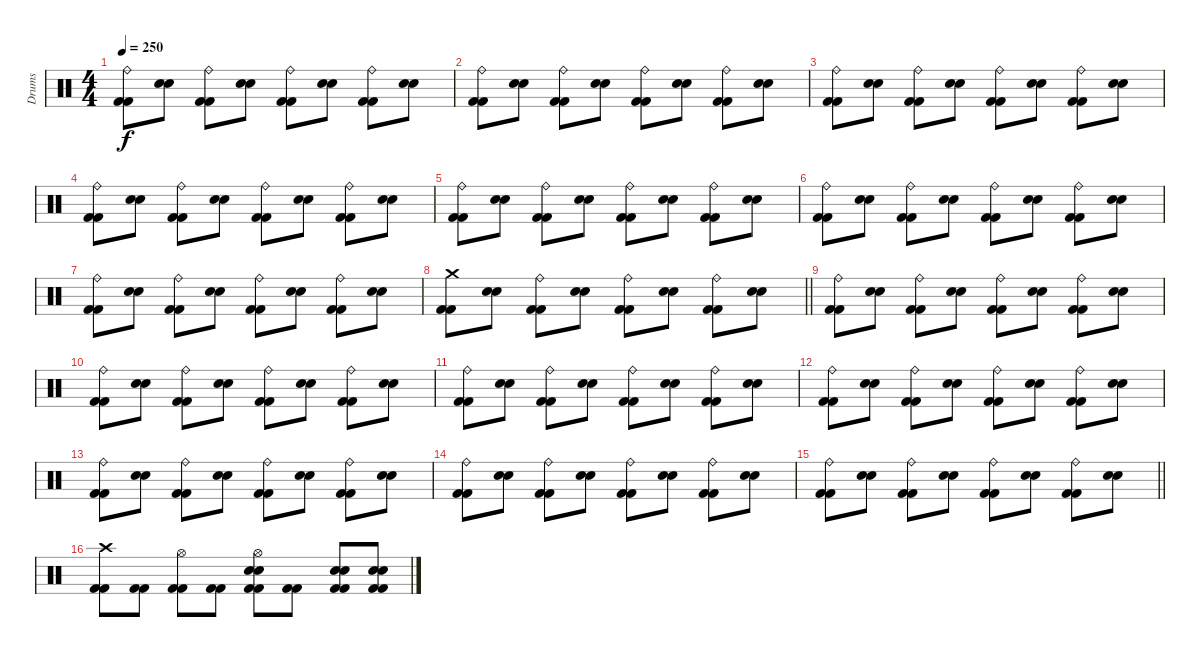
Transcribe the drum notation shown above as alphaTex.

\track ("Drums" "Drums") {instrument percussion}
\staff {score}
\articulation defaults
\ts (4 4)
\tempo 250
\clef neutral
\ks c
("Kick (hit) 2" "Kick (hit) 2" "Ride (bell)").8{dy f} ("Electric Snare (hit)" "Electric Snare (hit)").8 ("Kick (hit) 2" "Kick (hit) 2" "Ride (bell)").8 ("Electric Snare (hit)" "Electric Snare (hit)").8 ("Kick (hit) 2" "Kick (hit) 2" "Ride (bell)").8 ("Electric Snare (hit)" "Electric Snare (hit)").8 ("Kick (hit) 2" "Kick (hit) 2" "Ride (bell)").8 ("Electric Snare (hit)" "Electric Snare (hit)").8 |
("Kick (hit) 2" "Kick (hit) 2" "Ride (bell)").8 ("Electric Snare (hit)" "Electric Snare (hit)").8 ("Kick (hit) 2" "Kick (hit) 2" "Ride (bell)").8 ("Electric Snare (hit)" "Electric Snare (hit)").8 ("Kick (hit) 2" "Kick (hit) 2" "Ride (bell)").8 ("Electric Snare (hit)" "Electric Snare (hit)").8 ("Kick (hit) 2" "Kick (hit) 2" "Ride (bell)").8 ("Electric Snare (hit)" "Electric Snare (hit)").8 |
("Kick (hit) 2" "Kick (hit) 2" "Ride (bell)").8 ("Electric Snare (hit)" "Electric Snare (hit)").8 ("Kick (hit) 2" "Kick (hit) 2" "Ride (bell)").8 ("Electric Snare (hit)" "Electric Snare (hit)").8 ("Kick (hit) 2" "Kick (hit) 2" "Ride (bell)").8 ("Electric Snare (hit)" "Electric Snare (hit)").8 ("Kick (hit) 2" "Kick (hit) 2" "Ride (bell)").8 ("Electric Snare (hit)" "Electric Snare (hit)").8 |
("Kick (hit) 2" "Kick (hit) 2" "Ride (bell)").8 ("Electric Snare (hit)" "Electric Snare (hit)").8 ("Kick (hit) 2" "Kick (hit) 2" "Ride (bell)").8 ("Electric Snare (hit)" "Electric Snare (hit)").8 ("Kick (hit) 2" "Kick (hit) 2" "Ride (bell)").8 ("Electric Snare (hit)" "Electric Snare (hit)").8 ("Kick (hit) 2" "Kick (hit) 2" "Ride (bell)").8 ("Electric Snare (hit)" "Electric Snare (hit)").8 |
("Kick (hit) 2" "Kick (hit) 2" "Ride (bell)").8 ("Electric Snare (hit)" "Electric Snare (hit)").8 ("Kick (hit) 2" "Kick (hit) 2" "Ride (bell)").8 ("Electric Snare (hit)" "Electric Snare (hit)").8 ("Kick (hit) 2" "Kick (hit) 2" "Ride (bell)").8 ("Electric Snare (hit)" "Electric Snare (hit)").8 ("Kick (hit) 2" "Kick (hit) 2" "Ride (bell)").8 ("Electric Snare (hit)" "Electric Snare (hit)").8 |
("Kick (hit) 2" "Kick (hit) 2" "Ride (bell)").8 ("Electric Snare (hit)" "Electric Snare (hit)").8 ("Kick (hit) 2" "Kick (hit) 2" "Ride (bell)").8 ("Electric Snare (hit)" "Electric Snare (hit)").8 ("Kick (hit) 2" "Kick (hit) 2" "Ride (bell)").8 ("Electric Snare (hit)" "Electric Snare (hit)").8 ("Kick (hit) 2" "Kick (hit) 2" "Ride (bell)").8 ("Electric Snare (hit)" "Electric Snare (hit)").8 |
("Kick (hit) 2" "Kick (hit) 2" "Ride (bell)").8 ("Electric Snare (hit)" "Electric Snare (hit)").8 ("Kick (hit) 2" "Kick (hit) 2" "Ride (bell)").8 ("Electric Snare (hit)" "Electric Snare (hit)").8 ("Kick (hit) 2" "Kick (hit) 2" "Ride (bell)").8 ("Electric Snare (hit)" "Electric Snare (hit)").8 ("Kick (hit) 2" "Kick (hit) 2" "Ride (bell)").8 ("Electric Snare (hit)" "Electric Snare (hit)").8 |
\barLineRight lightlight
("Kick (hit) 2" "Kick (hit) 2" "Crash medium (hit)").8 ("Electric Snare (hit)" "Electric Snare (hit)").8 ("Kick (hit) 2" "Kick (hit) 2" "Ride (bell)").8 ("Electric Snare (hit)" "Electric Snare (hit)").8 ("Kick (hit) 2" "Kick (hit) 2" "Ride (bell)").8 ("Electric Snare (hit)" "Electric Snare (hit)").8 ("Kick (hit) 2" "Kick (hit) 2" "Ride (bell)").8 ("Electric Snare (hit)" "Electric Snare (hit)").8 |
("Kick (hit) 2" "Kick (hit) 2" "Ride (bell)").8 ("Electric Snare (hit)" "Electric Snare (hit)").8 ("Kick (hit) 2" "Kick (hit) 2" "Ride (bell)").8 ("Electric Snare (hit)" "Electric Snare (hit)").8 ("Kick (hit) 2" "Kick (hit) 2" "Ride (bell)").8 ("Electric Snare (hit)" "Electric Snare (hit)").8 ("Kick (hit) 2" "Kick (hit) 2" "Ride (bell)").8 ("Electric Snare (hit)" "Electric Snare (hit)").8 |
("Kick (hit) 2" "Kick (hit) 2" "Ride (bell)").8 ("Electric Snare (hit)" "Electric Snare (hit)").8 ("Kick (hit) 2" "Kick (hit) 2" "Ride (bell)").8 ("Electric Snare (hit)" "Electric Snare (hit)").8 ("Kick (hit) 2" "Kick (hit) 2" "Ride (bell)").8 ("Electric Snare (hit)" "Electric Snare (hit)").8 ("Kick (hit) 2" "Kick (hit) 2" "Ride (bell)").8 ("Electric Snare (hit)" "Electric Snare (hit)").8 |
("Kick (hit) 2" "Kick (hit) 2" "Ride (bell)").8 ("Electric Snare (hit)" "Electric Snare (hit)").8 ("Kick (hit) 2" "Kick (hit) 2" "Ride (bell)").8 ("Electric Snare (hit)" "Electric Snare (hit)").8 ("Kick (hit) 2" "Kick (hit) 2" "Ride (bell)").8 ("Electric Snare (hit)" "Electric Snare (hit)").8 ("Kick (hit) 2" "Kick (hit) 2" "Ride (bell)").8 ("Electric Snare (hit)" "Electric Snare (hit)").8 |
("Kick (hit) 2" "Kick (hit) 2" "Ride (bell)").8 ("Electric Snare (hit)" "Electric Snare (hit)").8 ("Kick (hit) 2" "Kick (hit) 2" "Ride (bell)").8 ("Electric Snare (hit)" "Electric Snare (hit)").8 ("Kick (hit) 2" "Kick (hit) 2" "Ride (bell)").8 ("Electric Snare (hit)" "Electric Snare (hit)").8 ("Kick (hit) 2" "Kick (hit) 2" "Ride (bell)").8 ("Electric Snare (hit)" "Electric Snare (hit)").8 |
("Kick (hit) 2" "Kick (hit) 2" "Ride (bell)").8 ("Electric Snare (hit)" "Electric Snare (hit)").8 ("Kick (hit) 2" "Kick (hit) 2" "Ride (bell)").8 ("Electric Snare (hit)" "Electric Snare (hit)").8 ("Kick (hit) 2" "Kick (hit) 2" "Ride (bell)").8 ("Electric Snare (hit)" "Electric Snare (hit)").8 ("Kick (hit) 2" "Kick (hit) 2" "Ride (bell)").8 ("Electric Snare (hit)" "Electric Snare (hit)").8 |
("Kick (hit) 2" "Kick (hit) 2" "Ride (bell)").8 ("Electric Snare (hit)" "Electric Snare (hit)").8 ("Kick (hit) 2" "Kick (hit) 2" "Ride (bell)").8 ("Electric Snare (hit)" "Electric Snare (hit)").8 ("Kick (hit) 2" "Kick (hit) 2" "Ride (bell)").8 ("Electric Snare (hit)" "Electric Snare (hit)").8 ("Kick (hit) 2" "Kick (hit) 2" "Ride (bell)").8 ("Electric Snare (hit)" "Electric Snare (hit)").8 |
\barLineRight lightlight
("Kick (hit) 2" "Kick (hit) 2" "Ride (bell)").8 ("Electric Snare (hit)" "Electric Snare (hit)").8 ("Kick (hit) 2" "Kick (hit) 2" "Ride (bell)").8 ("Electric Snare (hit)" "Electric Snare (hit)").8 ("Kick (hit) 2" "Kick (hit) 2" "Ride (bell)").8 ("Electric Snare (hit)" "Electric Snare (hit)").8 ("Kick (hit) 2" "Kick (hit) 2" "Ride (bell)").8 ("Electric Snare (hit)" "Electric Snare (hit)").8 |
("Kick (hit) 2" "Kick (hit) 2" "Crash high (hit)").8 ("Kick (hit) 2" "Kick (hit) 2").8 ("Kick (hit) 2" "Kick (hit) 2" "Hi-Hat (open)").8 ("Kick (hit) 2" "Kick (hit) 2").8 ("Kick (hit) 2" "Kick (hit) 2" "Electric Snare (hit)" "Electric Snare (hit)" "Hi-Hat (open)").8 ("Kick (hit) 2" "Kick (hit) 2").8 ("Kick (hit) 2" "Kick (hit) 2" "Electric Snare (hit)" "Electric Snare (hit)").8 ("Kick (hit) 2" "Kick (hit) 2" "Electric Snare (hit)" "Electric Snare (hit)").8
